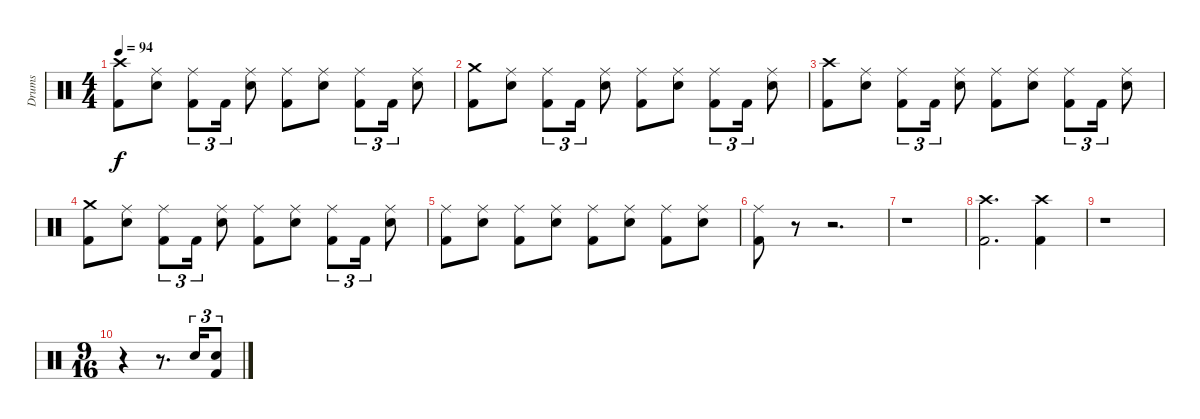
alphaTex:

\track ("Drums" "Drums") {instrument percussion}
\staff {score}
\articulation defaults
\ts (4 4)
\tempo 94
\clef neutral
\ks c
("Crash high (hit)" "Kick (hit) 2").8{dy f} ("Ride (middle)" "Electric Snare (hit)").8 ("Ride (middle)" "Kick (hit) 2").8{tu (3 2)} "Kick (hit) 2".16{tu (3 2)} ("Ride (middle)" "Electric Snare (hit)").8 ("Ride (middle)" "Kick (hit) 2").8 ("Ride (middle)" "Electric Snare (hit)").8 ("Ride (middle)" "Kick (hit) 2").8{tu (3 2)} "Kick (hit) 2".16{tu (3 2)} ("Ride (middle)" "Electric Snare (hit)").8 |
("Crash medium (hit)" "Kick (hit) 2").8 ("Ride (middle)" "Electric Snare (hit)").8 ("Ride (middle)" "Kick (hit) 2").8{tu (3 2)} "Kick (hit) 2".16{tu (3 2)} ("Ride (middle)" "Electric Snare (hit)").8 ("Ride (middle)" "Kick (hit) 2").8 ("Ride (middle)" "Electric Snare (hit)").8 ("Ride (middle)" "Kick (hit) 2").8{tu (3 2)} "Kick (hit) 2".16{tu (3 2)} ("Ride (middle)" "Electric Snare (hit)").8 |
("Crash high (hit)" "Kick (hit) 2").8 ("Ride (middle)" "Electric Snare (hit)").8 ("Ride (middle)" "Kick (hit) 2").8{tu (3 2)} "Kick (hit) 2".16{tu (3 2)} ("Ride (middle)" "Electric Snare (hit)").8 ("Ride (middle)" "Kick (hit) 2").8 ("Ride (middle)" "Electric Snare (hit)").8 ("Ride (middle)" "Kick (hit) 2").8{tu (3 2)} "Kick (hit) 2".16{tu (3 2)} ("Ride (middle)" "Electric Snare (hit)").8 |
("Crash medium (hit)" "Kick (hit) 2").8 ("Ride (middle)" "Electric Snare (hit)").8 ("Ride (middle)" "Kick (hit) 2").8{tu (3 2)} "Kick (hit) 2".16{tu (3 2)} ("Ride (middle)" "Electric Snare (hit)").8 ("Ride (middle)" "Kick (hit) 2").8 ("Ride (middle)" "Electric Snare (hit)").8 ("Ride (middle)" "Kick (hit) 2").8{tu (3 2)} "Kick (hit) 2".16{tu (3 2)} ("Ride (middle)" "Electric Snare (hit)").8 |
("Ride (middle)" "Kick (hit) 2").8 ("Ride (middle)" "Electric Snare (hit)").8 ("Ride (middle)" "Kick (hit) 2").8 ("Ride (middle)" "Electric Snare (hit)").8 ("Ride (middle)" "Kick (hit) 2").8 ("Ride (middle)" "Electric Snare (hit)").8 ("Ride (middle)" "Kick (hit) 2").8 ("Ride (middle)" "Electric Snare (hit)").8 |
("Ride (middle)" "Kick (hit) 2").8 r.8 r.2{d} |
r.1 |
("Crash high (hit)" "Kick (hit) 2").2{d} ("Crash high (hit)" "Kick (hit) 2").4 |
r.1 |
\ts (9 16)
r.4 r.8{d} "Electric Snare (hit)".16{tu (3 2)} ("Electric Snare (hit)" "Kick (hit) 2").8{tu (3 2)}
